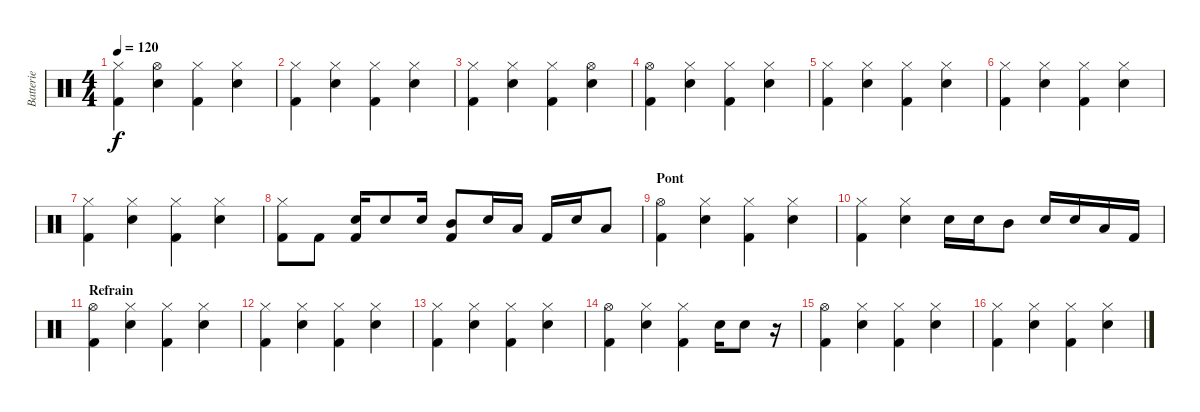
\track ("Batterie" "Batterie") {instrument percussion}
\staff {score}
\articulation defaults
\ts (4 4)
\tempo 120
\clef neutral
\ks c
("Hi-Hat (closed)" "Kick (hit) 2").4{dy f} ("Hi-Hat (open)" "Snare (hit) 2").4 ("Hi-Hat (closed)" "Kick (hit) 2").4 ("Hi-Hat (closed)" "Snare (hit) 2").4 |
("Hi-Hat (closed)" "Kick (hit) 2").4 ("Hi-Hat (closed)" "Snare (hit) 2").4 ("Hi-Hat (closed)" "Kick (hit) 2").4 ("Hi-Hat (closed)" "Snare (hit) 2").4 |
("Hi-Hat (closed)" "Kick (hit) 2").4 ("Hi-Hat (closed)" "Snare (hit) 2").4 ("Hi-Hat (closed)" "Kick (hit) 2").4 ("Hi-Hat (open)" "Snare (hit) 2").4 |
("Hi-Hat (open)" "Kick (hit) 2").4 ("Hi-Hat (closed)" "Snare (hit) 2").4 ("Hi-Hat (closed)" "Kick (hit) 2").4 ("Hi-Hat (closed)" "Snare (hit) 2").4 |
("Hi-Hat (closed)" "Kick (hit) 2").4 ("Hi-Hat (closed)" "Snare (hit) 2").4 ("Hi-Hat (closed)" "Kick (hit) 2").4 ("Hi-Hat (closed)" "Snare (hit) 2").4 |
("Hi-Hat (closed)" "Kick (hit) 2").4 ("Hi-Hat (closed)" "Snare (hit) 2").4 ("Hi-Hat (closed)" "Kick (hit) 2").4 ("Hi-Hat (closed)" "Snare (hit) 2").4 |
("Hi-Hat (closed)" "Kick (hit) 2").4 ("Hi-Hat (closed)" "Snare (hit) 2").4 ("Hi-Hat (closed)" "Kick (hit) 2").4 ("Hi-Hat (closed)" "Snare (hit) 2").4 |
("Hi-Hat (closed)" "Kick (hit) 2").8 "Kick (hit) 2".8 ("Snare (hit) 2" "Kick (hit) 2").16 "Snare (hit) 2".8 "Snare (hit) 2".16 ("Mid Tom (hit)" "Kick (hit) 2").8 "Snare (hit) 2".16 "Low Tom (hit)".16 "Kick (hit) 2".16 "Snare (hit) 2".16 "Low Floor Tom (hit)".8 |
\section ("" "Pont")
("Hi-Hat (open)" "Kick (hit) 2").4 ("Hi-Hat (closed)" "Snare (hit) 2").4 ("Hi-Hat (closed)" "Kick (hit) 2").4 ("Hi-Hat (closed)" "Snare (hit) 2").4 |
("Hi-Hat (closed)" "Kick (hit) 2").4 ("Hi-Hat (closed)" "Snare (hit) 2").4 "Snare (hit) 2".16 "Snare (hit) 2".16 "Mid Tom (hit)".8 "Snare (hit) 2".16 "Snare (hit) 2".16 "Low Tom (hit)".16 "Kick (hit) 2".16 |
\section ("" "Refrain")
("Hi-Hat (open)" "Kick (hit) 2").4 ("Hi-Hat (closed)" "Snare (hit) 2").4 ("Hi-Hat (closed)" "Kick (hit) 2").4 ("Hi-Hat (closed)" "Snare (hit) 2").4 |
("Hi-Hat (closed)" "Kick (hit) 2").4 ("Hi-Hat (closed)" "Snare (hit) 2").4 ("Hi-Hat (closed)" "Kick (hit) 2").4 ("Hi-Hat (closed)" "Snare (hit) 2").4 |
("Hi-Hat (closed)" "Kick (hit) 2").4 ("Hi-Hat (closed)" "Snare (hit) 2").4 ("Hi-Hat (closed)" "Kick (hit) 2").4 ("Hi-Hat (closed)" "Snare (hit) 2").4 |
("Hi-Hat (open)" "Kick (hit) 2").4 ("Hi-Hat (closed)" "Snare (hit) 2").4 ("Hi-Hat (closed)" "Kick (hit) 2").4 "Snare (hit) 2".16 "Snare (hit) 2".8 r.16 |
("Hi-Hat (open)" "Kick (hit) 2").4 ("Hi-Hat (closed)" "Snare (hit) 2").4 ("Hi-Hat (closed)" "Kick (hit) 2").4 ("Hi-Hat (closed)" "Snare (hit) 2").4 |
("Hi-Hat (closed)" "Kick (hit) 2").4 ("Hi-Hat (closed)" "Snare (hit) 2").4 ("Hi-Hat (closed)" "Kick (hit) 2").4 ("Hi-Hat (closed)" "Snare (hit) 2").4
